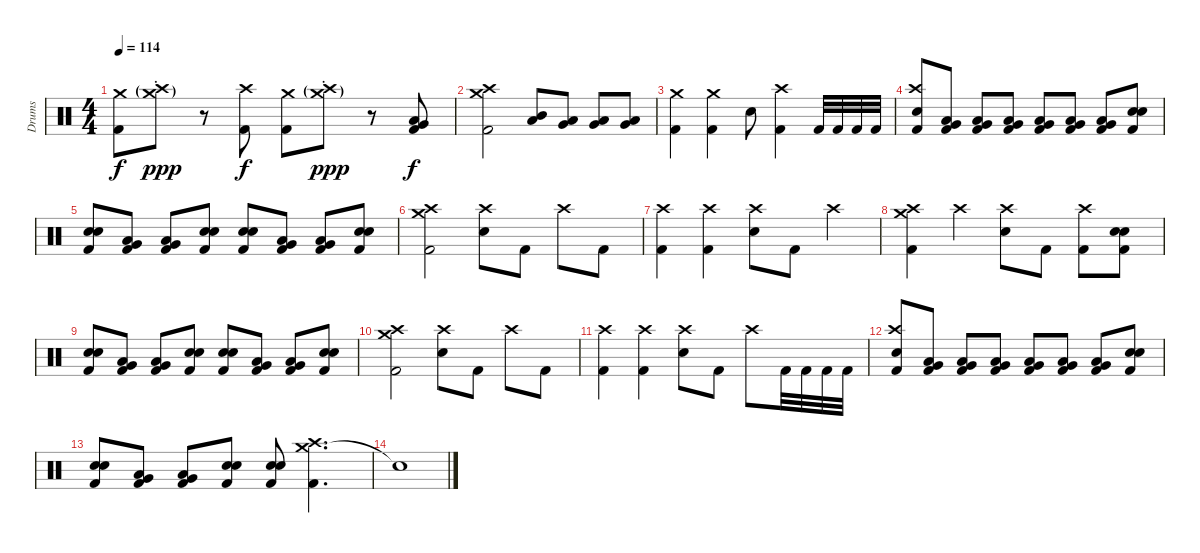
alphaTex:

\track ("Drums" "Drums") {instrument percussion}
\staff {score}
\articulation defaults
\ts (4 4)
\tempo 114
\clef neutral
\ks c
("Crash medium (hit)" "Kick (hit) 2").8{dy f} ("Crash medium (hit)"{g st} "Crash high (hit)"{g}).8{dy ppp} r.8 ("Crash high (hit)" "Kick (hit) 2").8{dy f} ("Crash medium (hit)" "Kick (hit) 2").8 ("Crash medium (hit)"{g st} "Crash high (hit)"{g}).8{dy ppp} r.8 ("Very Low Tom (hit)" "Low Floor Tom (hit)" "Kick (hit) 2").8{dy f} |
("Crash medium (hit)" "Crash high (hit)" "Kick (hit) 2").2 ("Mid Tom (hit)" "Low Tom (hit)").8 ("Low Tom (hit)" "Very Low Tom (hit)").8 ("Low Tom (hit)" "Very Low Tom (hit)").8 ("Very Low Tom (hit)" "Low Floor Tom (hit)").8 |
("Crash medium (hit)" "Kick (hit) 2").4 ("Crash medium (hit)" "Kick (hit) 2").4 "Electric Snare (hit)".8 ("Crash high (hit)" "Kick (hit) 2").4 "Kick (hit) 2".32 "Kick (hit) 2".32 "Kick (hit) 2".32 "Kick (hit) 2".32 |
("Crash high (hit)" "Electric Snare (hit)" "Kick (hit) 2").8 ("Very Low Tom (hit)" "Low Floor Tom (hit)" "Kick (hit) 2").8 ("Very Low Tom (hit)" "Low Floor Tom (hit)" "Kick (hit) 2").8 ("Very Low Tom (hit)" "Low Floor Tom (hit)" "Kick (hit) 2").8 ("Very Low Tom (hit)" "Low Floor Tom (hit)" "Kick (hit) 2").8 ("Very Low Tom (hit)" "Low Floor Tom (hit)" "Kick (hit) 2").8 ("Very Low Tom (hit)" "Low Floor Tom (hit)" "Kick (hit) 2").8 ("Electric Snare (hit)" "Electric Snare (hit)" "Kick (hit) 2").8 |
("Electric Snare (hit)" "Electric Snare (hit)" "Kick (hit) 2").8 ("Very Low Tom (hit)" "Low Floor Tom (hit)" "Kick (hit) 2").8 ("Very Low Tom (hit)" "Low Floor Tom (hit)" "Kick (hit) 2").8 ("Electric Snare (hit)" "Electric Snare (hit)" "Kick (hit) 2").8 ("Electric Snare (hit)" "Electric Snare (hit)" "Kick (hit) 2").8 ("Very Low Tom (hit)" "Low Floor Tom (hit)" "Kick (hit) 2").8 ("Very Low Tom (hit)" "Low Floor Tom (hit)" "Kick (hit) 2").8 ("Electric Snare (hit)" "Electric Snare (hit)" "Kick (hit) 2").8 |
("Crash medium (hit)" "Crash high (hit)" "Kick (hit) 2").2 ("Crash high (hit)" "Electric Snare (hit)").8 "Kick (hit) 2".8 "Crash high (hit)".8 "Kick (hit) 2".8 |
("Crash high (hit)" "Kick (hit) 2").4 ("Crash high (hit)" "Kick (hit) 2").4 ("Crash high (hit)" "Electric Snare (hit)").8 "Kick (hit) 2".8 "Crash high (hit)".4 |
("Crash medium (hit)" "Crash high (hit)" "Kick (hit) 2").4 "Crash high (hit)".4 ("Crash high (hit)" "Electric Snare (hit)").8 "Kick (hit) 2".8 ("Crash high (hit)" "Kick (hit) 2").8 ("Electric Snare (hit)" "Electric Snare (hit)" "Kick (hit) 2").8 |
("Electric Snare (hit)" "Electric Snare (hit)" "Kick (hit) 2").8 ("Very Low Tom (hit)" "Low Floor Tom (hit)" "Kick (hit) 2").8 ("Very Low Tom (hit)" "Low Floor Tom (hit)" "Kick (hit) 2").8 ("Electric Snare (hit)" "Electric Snare (hit)" "Kick (hit) 2").8 ("Electric Snare (hit)" "Electric Snare (hit)" "Kick (hit) 2").8 ("Very Low Tom (hit)" "Low Floor Tom (hit)" "Kick (hit) 2").8 ("Very Low Tom (hit)" "Low Floor Tom (hit)" "Kick (hit) 2").8 ("Electric Snare (hit)" "Electric Snare (hit)" "Kick (hit) 2").8 |
("Crash medium (hit)" "Crash high (hit)" "Kick (hit) 2").2 ("Crash high (hit)" "Electric Snare (hit)").8 "Kick (hit) 2".8 "Crash high (hit)".8 "Kick (hit) 2".8 |
("Crash high (hit)" "Kick (hit) 2").4 ("Crash high (hit)" "Kick (hit) 2").4 ("Crash high (hit)" "Electric Snare (hit)").8 "Kick (hit) 2".8 "Crash high (hit)".8 "Kick (hit) 2".32 "Kick (hit) 2".32 "Kick (hit) 2".32 "Kick (hit) 2".32 |
("Crash high (hit)" "Electric Snare (hit)" "Kick (hit) 2").8 ("Very Low Tom (hit)" "Low Floor Tom (hit)" "Kick (hit) 2").8 ("Very Low Tom (hit)" "Low Floor Tom (hit)" "Kick (hit) 2").8 ("Very Low Tom (hit)" "Low Floor Tom (hit)" "Kick (hit) 2").8 ("Very Low Tom (hit)" "Low Floor Tom (hit)" "Kick (hit) 2").8 ("Very Low Tom (hit)" "Low Floor Tom (hit)" "Kick (hit) 2").8 ("Very Low Tom (hit)" "Low Floor Tom (hit)" "Kick (hit) 2").8 ("Electric Snare (hit)" "Electric Snare (hit)" "Kick (hit) 2").8 |
("Electric Snare (hit)" "Electric Snare (hit)" "Kick (hit) 2").8 ("Very Low Tom (hit)" "Low Floor Tom (hit)" "Kick (hit) 2").8 ("Very Low Tom (hit)" "Low Floor Tom (hit)" "Kick (hit) 2").8 ("Electric Snare (hit)" "Electric Snare (hit)" "Kick (hit) 2").8 ("Electric Snare (hit)" "Electric Snare (hit)" "Kick (hit) 2").8 ("Crash medium (hit)" "Crash high (hit)" "Kick (hit) 2").4{d} |
"Snare (hit)"{t}.1
